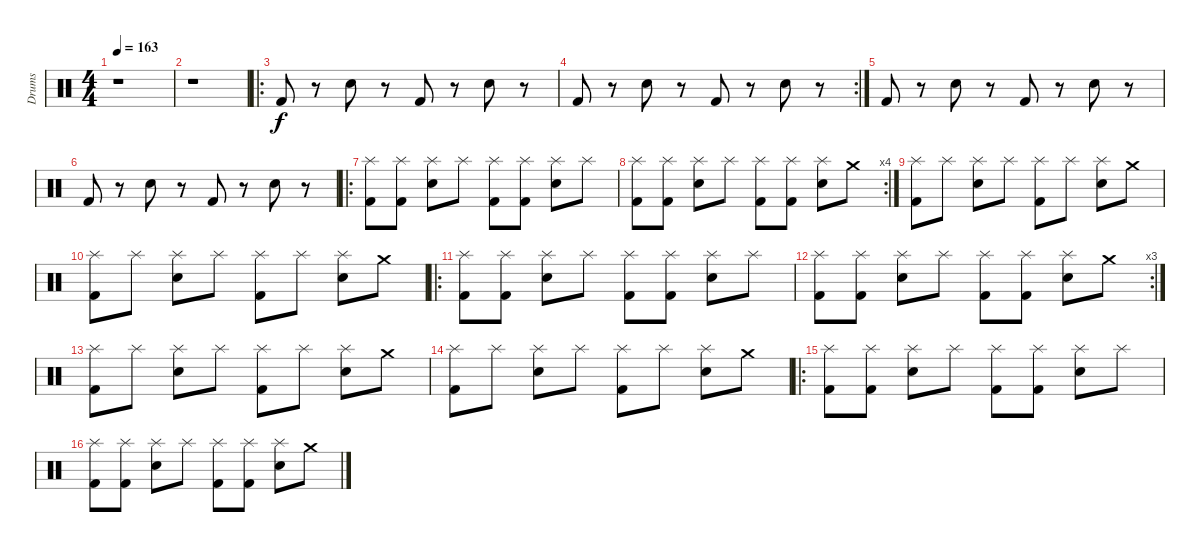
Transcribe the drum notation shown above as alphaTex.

\track ("Drums" "Drums") {instrument percussion}
\staff {score}
\articulation defaults
\ts (4 4)
\tempo 163
\clef neutral
\ks c
r.1{dy f} |
r.1 |
\ro "Kick (hit) 2".8
r.8 "Snare (hit) 2".8 r.8 "Kick (hit) 2".8 r.8 "Snare (hit) 2".8 r.8 |
\rc 2 "Kick (hit) 2".8
r.8 "Snare (hit) 2".8 r.8 "Kick (hit) 2".8 r.8 "Snare (hit) 2".8 r.8 |
"Kick (hit) 2".8 r.8 "Snare (hit) 2".8 r.8 "Kick (hit) 2".8 r.8 "Snare (hit) 2".8 r.8 |
"Kick (hit) 2".8 r.8 "Snare (hit) 2".8 r.8 "Kick (hit) 2".8 r.8 "Snare (hit) 2".8 r.8 |
\ro
("Splash (hit)" "Kick (hit) 2").8 ("Splash (hit)" "Kick (hit) 2").8 ("Splash (hit)" "Snare (hit) 2").8 "Splash (hit)".8 ("Splash (hit)" "Kick (hit) 2").8 ("Splash (hit)" "Kick (hit) 2").8 ("Splash (hit)" "Snare (hit) 2").8 "Splash (hit)".8 |
\rc 4
("Splash (hit)" "Kick (hit) 2").8 ("Splash (hit)" "Kick (hit) 2").8 ("Splash (hit)" "Snare (hit) 2").8 "Splash (hit)".8 ("Splash (hit)" "Kick (hit) 2").8 ("Splash (hit)" "Kick (hit) 2").8 ("Splash (hit)" "Snare (hit) 2").8 "Crash medium (hit)".8 |
("Splash (hit)" "Kick (hit) 2").8 "Splash (hit)".8 ("Splash (hit)" "Snare (hit) 2").8 "Splash (hit)".8 ("Splash (hit)" "Kick (hit) 2").8 "Splash (hit)".8 ("Splash (hit)" "Snare (hit) 2").8 "Crash medium (hit)".8 |
("Splash (hit)" "Kick (hit) 2").8 "Splash (hit)".8 ("Splash (hit)" "Snare (hit) 2").8 "Splash (hit)".8 ("Splash (hit)" "Kick (hit) 2").8 "Splash (hit)".8 ("Splash (hit)" "Snare (hit) 2").8 "Crash medium (hit)".8 |
\ro
("Splash (hit)" "Kick (hit) 2").8 ("Splash (hit)" "Kick (hit) 2").8 ("Splash (hit)" "Snare (hit) 2").8 "Splash (hit)".8 ("Splash (hit)" "Kick (hit) 2").8 ("Splash (hit)" "Kick (hit) 2").8 ("Splash (hit)" "Snare (hit) 2").8 "Splash (hit)".8 |
\rc 3
("Splash (hit)" "Kick (hit) 2").8 ("Splash (hit)" "Kick (hit) 2").8 ("Splash (hit)" "Snare (hit) 2").8 "Splash (hit)".8 ("Splash (hit)" "Kick (hit) 2").8 ("Splash (hit)" "Kick (hit) 2").8 ("Splash (hit)" "Snare (hit) 2").8 "Crash medium (hit)".8 |
("Splash (hit)" "Kick (hit) 2").8 "Splash (hit)".8 ("Splash (hit)" "Snare (hit) 2").8 "Splash (hit)".8 ("Splash (hit)" "Kick (hit) 2").8 "Splash (hit)".8 ("Splash (hit)" "Snare (hit) 2").8 "Crash medium (hit)".8 |
("Splash (hit)" "Kick (hit) 2").8 "Splash (hit)".8 ("Splash (hit)" "Snare (hit) 2").8 "Splash (hit)".8 ("Splash (hit)" "Kick (hit) 2").8 "Splash (hit)".8 ("Splash (hit)" "Snare (hit) 2").8 "Crash medium (hit)".8 |
\ro
("Splash (hit)" "Kick (hit) 2").8 ("Splash (hit)" "Kick (hit) 2").8 ("Splash (hit)" "Snare (hit) 2").8 "Splash (hit)".8 ("Splash (hit)" "Kick (hit) 2").8 ("Splash (hit)" "Kick (hit) 2").8 ("Splash (hit)" "Snare (hit) 2").8 "Splash (hit)".8 |
("Splash (hit)" "Kick (hit) 2").8 ("Splash (hit)" "Kick (hit) 2").8 ("Splash (hit)" "Snare (hit) 2").8 "Splash (hit)".8 ("Splash (hit)" "Kick (hit) 2").8 ("Splash (hit)" "Kick (hit) 2").8 ("Splash (hit)" "Snare (hit) 2").8 "Crash medium (hit)".8
